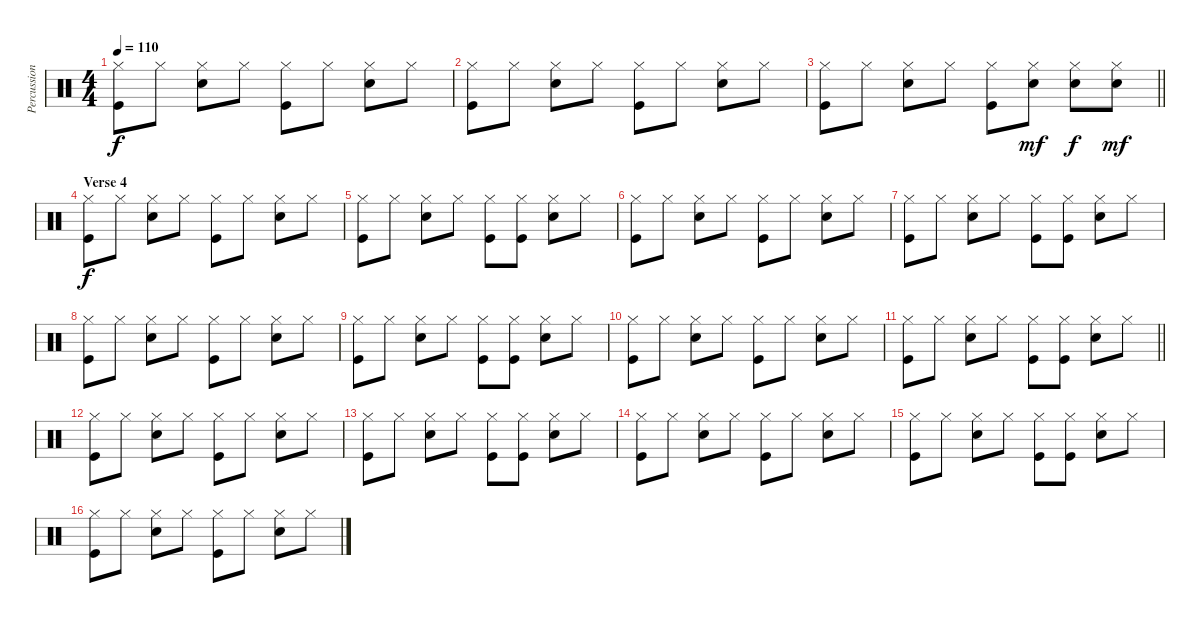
\track ("Percussion" "Percussion") {instrument percussion}
\staff {score}
\articulation defaults
\ts (4 4)
\tempo 110
\clef neutral
\ks c
("Hi-Hat (closed)" "Kick (hit)").8{dy f} "Hi-Hat (closed)".8 ("Hi-Hat (closed)" "Snare (hit) 2").8 "Hi-Hat (closed)".8 ("Hi-Hat (closed)" "Kick (hit)").8 "Hi-Hat (closed)".8 ("Hi-Hat (closed)" "Snare (hit) 2").8 "Hi-Hat (closed)".8 |
("Hi-Hat (closed)" "Kick (hit)").8 "Hi-Hat (closed)".8 ("Hi-Hat (closed)" "Snare (hit) 2").8 "Hi-Hat (closed)".8 ("Hi-Hat (closed)" "Kick (hit)").8 "Hi-Hat (closed)".8 ("Hi-Hat (closed)" "Snare (hit) 2").8 "Hi-Hat (closed)".8 |
\barLineRight lightlight
("Hi-Hat (closed)" "Kick (hit)").8 "Hi-Hat (closed)".8 ("Hi-Hat (closed)" "Snare (hit) 2").8 "Hi-Hat (closed)".8 ("Hi-Hat (closed)" "Kick (hit)").8 ("Hi-Hat (closed)" "Snare (hit) 2").8{dy mf} ("Hi-Hat (closed)" "Snare (hit) 2").8{dy f} ("Hi-Hat (closed)" "Snare (hit) 2").8{dy mf} |
\section ("" "Verse 4")
("Hi-Hat (closed)" "Kick (hit)").8{dy f} "Hi-Hat (closed)".8 ("Hi-Hat (closed)" "Snare (hit) 2").8 "Hi-Hat (closed)".8 ("Hi-Hat (closed)" "Kick (hit)").8 "Hi-Hat (closed)".8 ("Hi-Hat (closed)" "Snare (hit) 2").8 "Hi-Hat (closed)".8 |
("Hi-Hat (closed)" "Kick (hit)").8 "Hi-Hat (closed)".8 ("Hi-Hat (closed)" "Snare (hit) 2").8 "Hi-Hat (closed)".8 ("Hi-Hat (closed)" "Kick (hit)").8 ("Hi-Hat (closed)" "Kick (hit)").8 ("Hi-Hat (closed)" "Snare (hit) 2").8 "Hi-Hat (closed)".8 |
("Hi-Hat (closed)" "Kick (hit)").8 "Hi-Hat (closed)".8 ("Hi-Hat (closed)" "Snare (hit) 2").8 "Hi-Hat (closed)".8 ("Hi-Hat (closed)" "Kick (hit)").8 "Hi-Hat (closed)".8 ("Hi-Hat (closed)" "Snare (hit) 2").8 "Hi-Hat (closed)".8 |
("Hi-Hat (closed)" "Kick (hit)").8 "Hi-Hat (closed)".8 ("Hi-Hat (closed)" "Snare (hit) 2").8 "Hi-Hat (closed)".8 ("Hi-Hat (closed)" "Kick (hit)").8 ("Hi-Hat (closed)" "Kick (hit)").8 ("Hi-Hat (closed)" "Snare (hit) 2").8 "Hi-Hat (closed)".8 |
("Hi-Hat (closed)" "Kick (hit)").8 "Hi-Hat (closed)".8 ("Hi-Hat (closed)" "Snare (hit) 2").8 "Hi-Hat (closed)".8 ("Hi-Hat (closed)" "Kick (hit)").8 "Hi-Hat (closed)".8 ("Hi-Hat (closed)" "Snare (hit) 2").8 "Hi-Hat (closed)".8 |
("Hi-Hat (closed)" "Kick (hit)").8 "Hi-Hat (closed)".8 ("Hi-Hat (closed)" "Snare (hit) 2").8 "Hi-Hat (closed)".8 ("Hi-Hat (closed)" "Kick (hit)").8 ("Hi-Hat (closed)" "Kick (hit)").8 ("Hi-Hat (closed)" "Snare (hit) 2").8 "Hi-Hat (closed)".8 |
("Hi-Hat (closed)" "Kick (hit)").8 "Hi-Hat (closed)".8 ("Hi-Hat (closed)" "Snare (hit) 2").8 "Hi-Hat (closed)".8 ("Hi-Hat (closed)" "Kick (hit)").8 "Hi-Hat (closed)".8 ("Hi-Hat (closed)" "Snare (hit) 2").8 "Hi-Hat (closed)".8 |
\barLineRight lightlight
("Hi-Hat (closed)" "Kick (hit)").8 "Hi-Hat (closed)".8 ("Hi-Hat (closed)" "Snare (hit) 2").8 "Hi-Hat (closed)".8 ("Hi-Hat (closed)" "Kick (hit)").8 ("Hi-Hat (closed)" "Kick (hit)").8 ("Hi-Hat (closed)" "Snare (hit) 2").8 "Hi-Hat (closed)".8 |
("Hi-Hat (closed)" "Kick (hit)").8 "Hi-Hat (closed)".8 ("Hi-Hat (closed)" "Snare (hit) 2").8 "Hi-Hat (closed)".8 ("Hi-Hat (closed)" "Kick (hit)").8 "Hi-Hat (closed)".8 ("Hi-Hat (closed)" "Snare (hit) 2").8 "Hi-Hat (closed)".8 |
("Hi-Hat (closed)" "Kick (hit)").8 "Hi-Hat (closed)".8 ("Hi-Hat (closed)" "Snare (hit) 2").8 "Hi-Hat (closed)".8 ("Hi-Hat (closed)" "Kick (hit)").8 ("Hi-Hat (closed)" "Kick (hit)").8 ("Hi-Hat (closed)" "Snare (hit) 2").8 "Hi-Hat (closed)".8 |
("Hi-Hat (closed)" "Kick (hit)").8 "Hi-Hat (closed)".8 ("Hi-Hat (closed)" "Snare (hit) 2").8 "Hi-Hat (closed)".8 ("Hi-Hat (closed)" "Kick (hit)").8 "Hi-Hat (closed)".8 ("Hi-Hat (closed)" "Snare (hit) 2").8 "Hi-Hat (closed)".8 |
("Hi-Hat (closed)" "Kick (hit)").8 "Hi-Hat (closed)".8 ("Hi-Hat (closed)" "Snare (hit) 2").8 "Hi-Hat (closed)".8 ("Hi-Hat (closed)" "Kick (hit)").8 ("Hi-Hat (closed)" "Kick (hit)").8 ("Hi-Hat (closed)" "Snare (hit) 2").8 "Hi-Hat (closed)".8 |
("Hi-Hat (closed)" "Kick (hit)").8 "Hi-Hat (closed)".8 ("Hi-Hat (closed)" "Snare (hit) 2").8 "Hi-Hat (closed)".8 ("Hi-Hat (closed)" "Kick (hit)").8 "Hi-Hat (closed)".8 ("Hi-Hat (closed)" "Snare (hit) 2").8 "Hi-Hat (closed)".8
